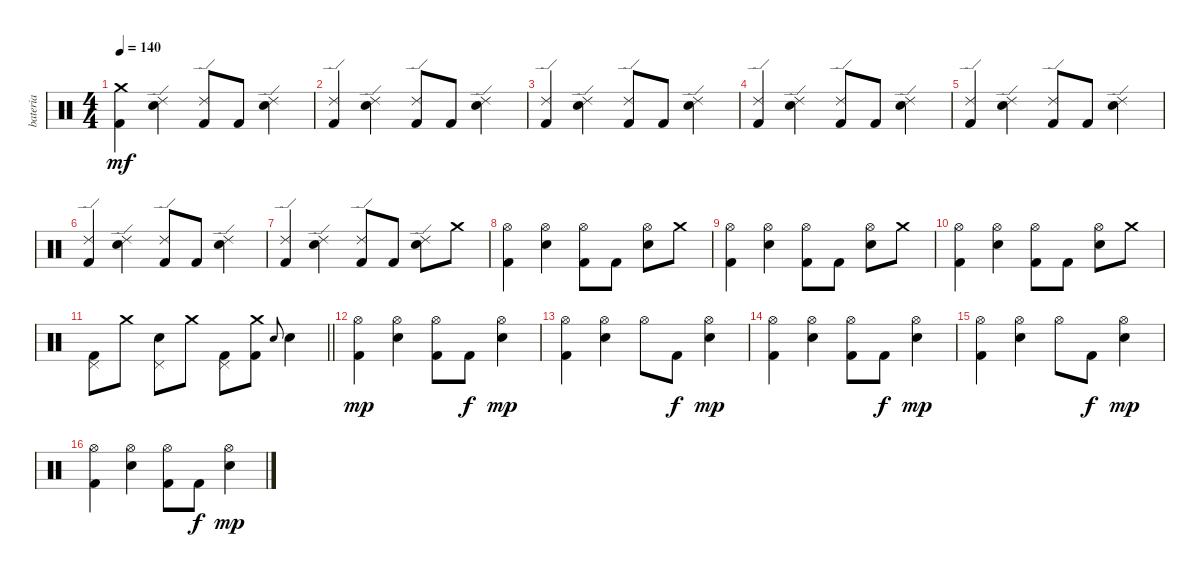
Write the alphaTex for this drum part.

\track ("bateria" "bateria") {instrument percussion}
\staff {score}
\articulation defaults
\ts (4 4)
\tempo 140
\clef neutral
\ks c
("Crash medium (hit)" "Kick (hit) 2").4{dy mf} ("Ride (edge) 2" "Snare (hit) 2").4 ("Ride (edge) 2" "Kick (hit) 2").8 "Kick (hit) 2".8 ("Ride (edge) 2" "Snare (hit) 2").4 |
("Ride (edge) 2" "Kick (hit) 2").4 ("Ride (edge) 2" "Snare (hit) 2").4 ("Ride (edge) 2" "Kick (hit) 2").8 "Kick (hit) 2".8 ("Ride (edge) 2" "Snare (hit) 2").4 |
("Ride (edge) 2" "Kick (hit) 2").4 ("Ride (edge) 2" "Snare (hit) 2").4 ("Ride (edge) 2" "Kick (hit) 2").8 "Kick (hit) 2".8 ("Ride (edge) 2" "Snare (hit) 2").4 |
("Ride (edge) 2" "Kick (hit) 2").4 ("Ride (edge) 2" "Snare (hit) 2").4 ("Ride (edge) 2" "Kick (hit) 2").8 "Kick (hit) 2".8 ("Ride (edge) 2" "Snare (hit) 2").4 |
("Ride (edge) 2" "Kick (hit) 2").4 ("Ride (edge) 2" "Snare (hit) 2").4 ("Ride (edge) 2" "Kick (hit) 2").8 "Kick (hit) 2".8 ("Ride (edge) 2" "Snare (hit) 2").4 |
("Ride (edge) 2" "Kick (hit) 2").4 ("Ride (edge) 2" "Snare (hit) 2").4 ("Ride (edge) 2" "Kick (hit) 2").8 "Kick (hit) 2".8 ("Ride (edge) 2" "Snare (hit) 2").4 |
("Ride (edge) 2" "Kick (hit) 2").4 ("Ride (edge) 2" "Snare (hit) 2").4 ("Ride (edge) 2" "Kick (hit) 2").8 "Kick (hit) 2".8 ("Ride (edge) 2" "Snare (hit) 2").8 "Crash medium (hit)".8 |
("Hi-Hat (open)" "Kick (hit) 2").4 ("Hi-Hat (open)" "Snare (hit) 2").4 ("Hi-Hat (open)" "Kick (hit) 2").8 "Kick (hit) 2".8 ("Hi-Hat (open)" "Snare (hit) 2").8 "Crash medium (hit)".8 |
("Hi-Hat (open)" "Kick (hit) 2").4 ("Hi-Hat (open)" "Snare (hit) 2").4 ("Hi-Hat (open)" "Kick (hit) 2").8 "Kick (hit) 2".8 ("Hi-Hat (open)" "Snare (hit) 2").8 "Crash medium (hit)".8 |
("Hi-Hat (open)" "Kick (hit) 2").4 ("Hi-Hat (open)" "Snare (hit) 2").4 ("Hi-Hat (open)" "Kick (hit) 2").8 "Kick (hit) 2".8 ("Hi-Hat (open)" "Snare (hit) 2").8 "Crash medium (hit)".8 |
\barLineRight lightlight
("Pedal Hi-Hat (hit)" "Kick (hit) 2").8 "Crash medium (hit)".8 ("Pedal Hi-Hat (hit)" "Snare (hit) 2").8 "Crash medium (hit)".8 ("Pedal Hi-Hat (hit)" "Kick (hit) 2").8 ("Crash medium (hit)" "Kick (hit) 2").8 "Snare (hit) 2".8{gr onbeat} "Snare (hit) 2".4 |
("Hi-Hat (open)" "Kick (hit) 2").4{dy mp} ("Hi-Hat (open)" "Snare (hit) 2").4 ("Hi-Hat (open)" "Kick (hit) 2").8 "Kick (hit) 2".8{dy f} ("Hi-Hat (open)" "Snare (hit) 2").4{dy mp} |
("Hi-Hat (open)" "Kick (hit) 2").4 ("Hi-Hat (open)" "Snare (hit) 2").4 "Hi-Hat (open)".8 "Kick (hit) 2".8{dy f} ("Hi-Hat (open)" "Snare (hit) 2").4{dy mp} |
("Hi-Hat (open)" "Kick (hit) 2").4 ("Hi-Hat (open)" "Snare (hit) 2").4 ("Hi-Hat (open)" "Kick (hit) 2").8 "Kick (hit) 2".8{dy f} ("Hi-Hat (open)" "Snare (hit) 2").4{dy mp} |
("Hi-Hat (open)" "Kick (hit) 2").4 ("Hi-Hat (open)" "Snare (hit) 2").4 "Hi-Hat (open)".8 "Kick (hit) 2".8{dy f} ("Hi-Hat (open)" "Snare (hit) 2").4{dy mp} |
("Hi-Hat (open)" "Kick (hit) 2").4 ("Hi-Hat (open)" "Snare (hit) 2").4 ("Hi-Hat (open)" "Kick (hit) 2").8 "Kick (hit) 2".8{dy f} ("Hi-Hat (open)" "Snare (hit) 2").4{dy mp}
